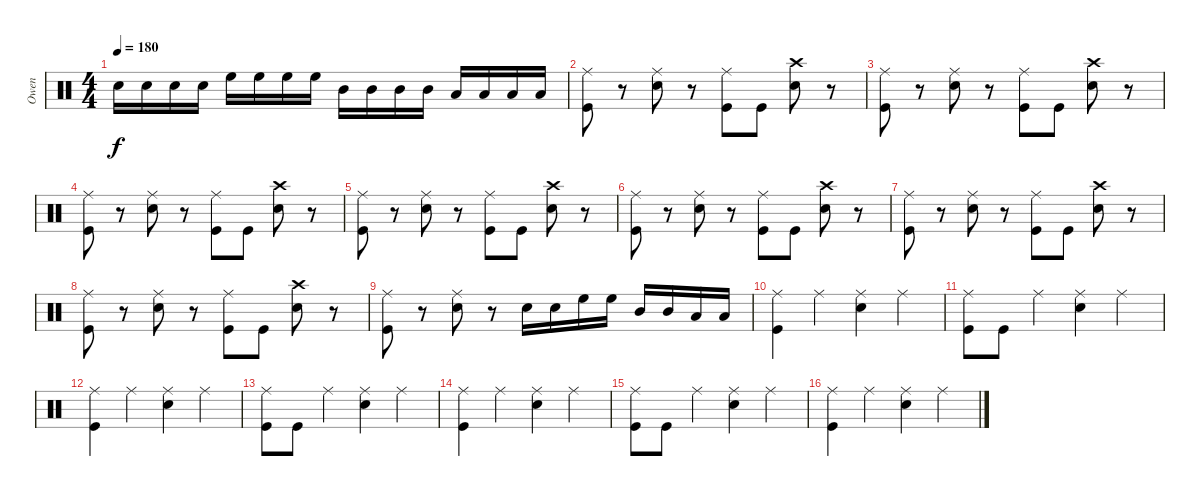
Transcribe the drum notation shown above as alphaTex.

\track ("Owen" "Owen") {instrument percussion}
\staff {score}
\articulation defaults
\ts (4 4)
\tempo 180
\clef neutral
\ks c "Snare (hit) 2".16{dy f} "Snare (hit) 2".16 "Snare (hit) 2".16 "Snare (hit) 2".16 "High Floor Tom (hit)".16 "High Floor Tom (hit)".16 "High Floor Tom (hit)".16 "High Floor Tom (hit)".16 "Mid Tom (hit)".16 "Mid Tom (hit)".16 "Mid Tom (hit)".16 "Mid Tom (hit)".16 "Low Tom (hit)".16 "Low Tom (hit)".16 "Low Tom (hit)".16 "Low Tom (hit)".16
|
("Ride (middle)" "Kick (hit)").8 r.8 ("Ride (middle)" "Snare (hit) 2").8 r.8 ("Ride (middle)" "Kick (hit)").8 "Kick (hit)".8 ("Crash high (hit)" "Snare (hit) 2").8 r.8 |
("Ride (middle)" "Kick (hit)").8 r.8 ("Ride (middle)" "Snare (hit) 2").8 r.8 ("Ride (middle)" "Kick (hit)").8 "Kick (hit)".8 ("Crash high (hit)" "Snare (hit) 2").8 r.8 |
("Ride (middle)" "Kick (hit)").8 r.8 ("Ride (middle)" "Snare (hit) 2").8 r.8 ("Ride (middle)" "Kick (hit)").8 "Kick (hit)".8 ("Crash high (hit)" "Snare (hit) 2").8 r.8 |
("Ride (middle)" "Kick (hit)").8 r.8 ("Ride (middle)" "Snare (hit) 2").8 r.8 ("Ride (middle)" "Kick (hit)").8 "Kick (hit)".8 ("Crash high (hit)" "Snare (hit) 2").8 r.8 |
("Ride (middle)" "Kick (hit)").8 r.8 ("Ride (middle)" "Snare (hit) 2").8 r.8 ("Ride (middle)" "Kick (hit)").8 "Kick (hit)".8 ("Crash high (hit)" "Snare (hit) 2").8 r.8 |
("Ride (middle)" "Kick (hit)").8 r.8 ("Ride (middle)" "Snare (hit) 2").8 r.8 ("Ride (middle)" "Kick (hit)").8 "Kick (hit)".8 ("Crash high (hit)" "Snare (hit) 2").8 r.8 |
("Ride (middle)" "Kick (hit)").8 r.8 ("Ride (middle)" "Snare (hit) 2").8 r.8 ("Ride (middle)" "Kick (hit)").8 "Kick (hit)".8 ("Crash high (hit)" "Snare (hit) 2").8 r.8 |
("Ride (middle)" "Kick (hit)").8 r.8 ("Ride (middle)" "Snare (hit) 2").8 r.8 "Snare (hit) 2".16 "Snare (hit) 2".16 "High Floor Tom (hit)".16 "High Floor Tom (hit)".16 "Mid Tom (hit)".16 "Mid Tom (hit)".16 "Low Tom (hit)".16 "Low Tom (hit)".16 |
("Ride (middle)" "Kick (hit)").4 "Ride (middle)".4 ("Ride (middle)" "Snare (hit) 2").4 "Ride (middle)".4 |
("Ride (middle)" "Kick (hit)").8 "Kick (hit)".8 "Ride (middle)".4 ("Ride (middle)" "Snare (hit) 2").4 "Ride (middle)".4 |
("Ride (middle)" "Kick (hit)").4 "Ride (middle)".4 ("Ride (middle)" "Snare (hit) 2").4 "Ride (middle)".4 |
("Ride (middle)" "Kick (hit)").8 "Kick (hit)".8 "Ride (middle)".4 ("Ride (middle)" "Snare (hit) 2").4 "Ride (middle)".4 |
("Ride (middle)" "Kick (hit)").4 "Ride (middle)".4 ("Ride (middle)" "Snare (hit) 2").4 "Ride (middle)".4 |
("Ride (middle)" "Kick (hit)").8 "Kick (hit)".8 "Ride (middle)".4 ("Ride (middle)" "Snare (hit) 2").4 "Ride (middle)".4 |
("Ride (middle)" "Kick (hit)").4 "Ride (middle)".4 ("Ride (middle)" "Snare (hit) 2").4 "Ride (middle)".4
